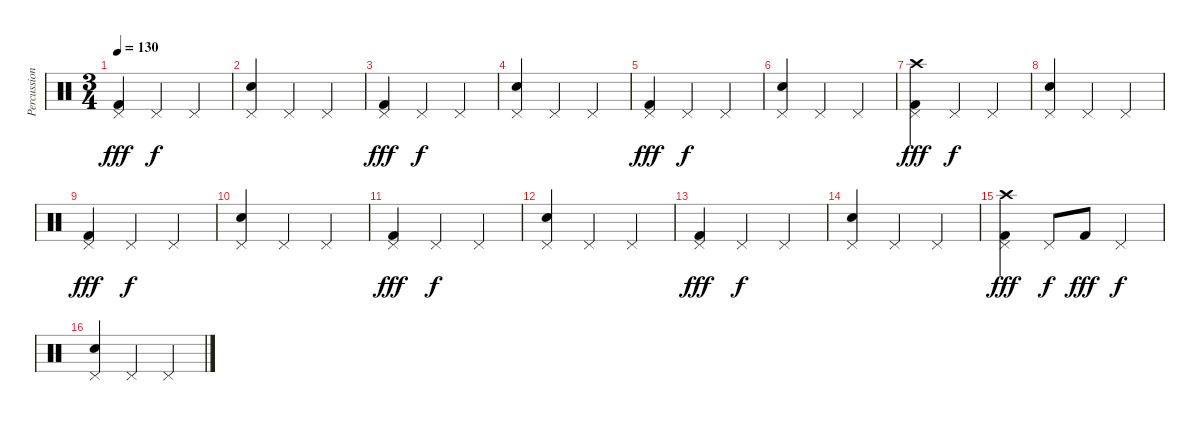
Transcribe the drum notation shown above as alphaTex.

\track ("Percussion" "Percussion") {instrument percussion}
\staff {score}
\articulation defaults
\ts (3 4)
\tempo 130
\clef neutral
\ks c
("Pedal Hi-Hat (hit)" "Kick (hit) 2").4{dy fff} "Pedal Hi-Hat (hit)".4{dy f} "Pedal Hi-Hat (hit)".4 |
("Pedal Hi-Hat (hit)" "Electric Snare (hit)").4 "Pedal Hi-Hat (hit)".4 "Pedal Hi-Hat (hit)".4 |
("Pedal Hi-Hat (hit)" "Kick (hit) 2").4{dy fff} "Pedal Hi-Hat (hit)".4{dy f} "Pedal Hi-Hat (hit)".4 |
("Pedal Hi-Hat (hit)" "Electric Snare (hit)").4 "Pedal Hi-Hat (hit)".4 "Pedal Hi-Hat (hit)".4 |
("Pedal Hi-Hat (hit)" "Kick (hit) 2").4{dy fff} "Pedal Hi-Hat (hit)".4{dy f} "Pedal Hi-Hat (hit)".4 |
("Pedal Hi-Hat (hit)" "Electric Snare (hit)").4 "Pedal Hi-Hat (hit)".4 "Pedal Hi-Hat (hit)".4 |
("Crash high (hit)" "Pedal Hi-Hat (hit)" "Kick (hit) 2").4{dy fff} "Pedal Hi-Hat (hit)".4{dy f} "Pedal Hi-Hat (hit)".4 |
("Pedal Hi-Hat (hit)" "Electric Snare (hit)").4 "Pedal Hi-Hat (hit)".4 "Pedal Hi-Hat (hit)".4 |
("Pedal Hi-Hat (hit)" "Kick (hit) 2").4{dy fff} "Pedal Hi-Hat (hit)".4{dy f} "Pedal Hi-Hat (hit)".4 |
("Pedal Hi-Hat (hit)" "Electric Snare (hit)").4 "Pedal Hi-Hat (hit)".4 "Pedal Hi-Hat (hit)".4 |
("Pedal Hi-Hat (hit)" "Kick (hit) 2").4{dy fff} "Pedal Hi-Hat (hit)".4{dy f} "Pedal Hi-Hat (hit)".4 |
("Pedal Hi-Hat (hit)" "Electric Snare (hit)").4 "Pedal Hi-Hat (hit)".4 "Pedal Hi-Hat (hit)".4 |
("Pedal Hi-Hat (hit)" "Kick (hit) 2").4{dy fff} "Pedal Hi-Hat (hit)".4{dy f} "Pedal Hi-Hat (hit)".4 |
("Pedal Hi-Hat (hit)" "Electric Snare (hit)").4 "Pedal Hi-Hat (hit)".4 "Pedal Hi-Hat (hit)".4 |
("Crash high (hit)" "Pedal Hi-Hat (hit)" "Kick (hit) 2").4{dy fff} "Pedal Hi-Hat (hit)".8{dy f} "Kick (hit) 2".8{dy fff} "Pedal Hi-Hat (hit)".4{dy f} |
("Pedal Hi-Hat (hit)" "Electric Snare (hit)").4 "Pedal Hi-Hat (hit)".4 "Pedal Hi-Hat (hit)".4
